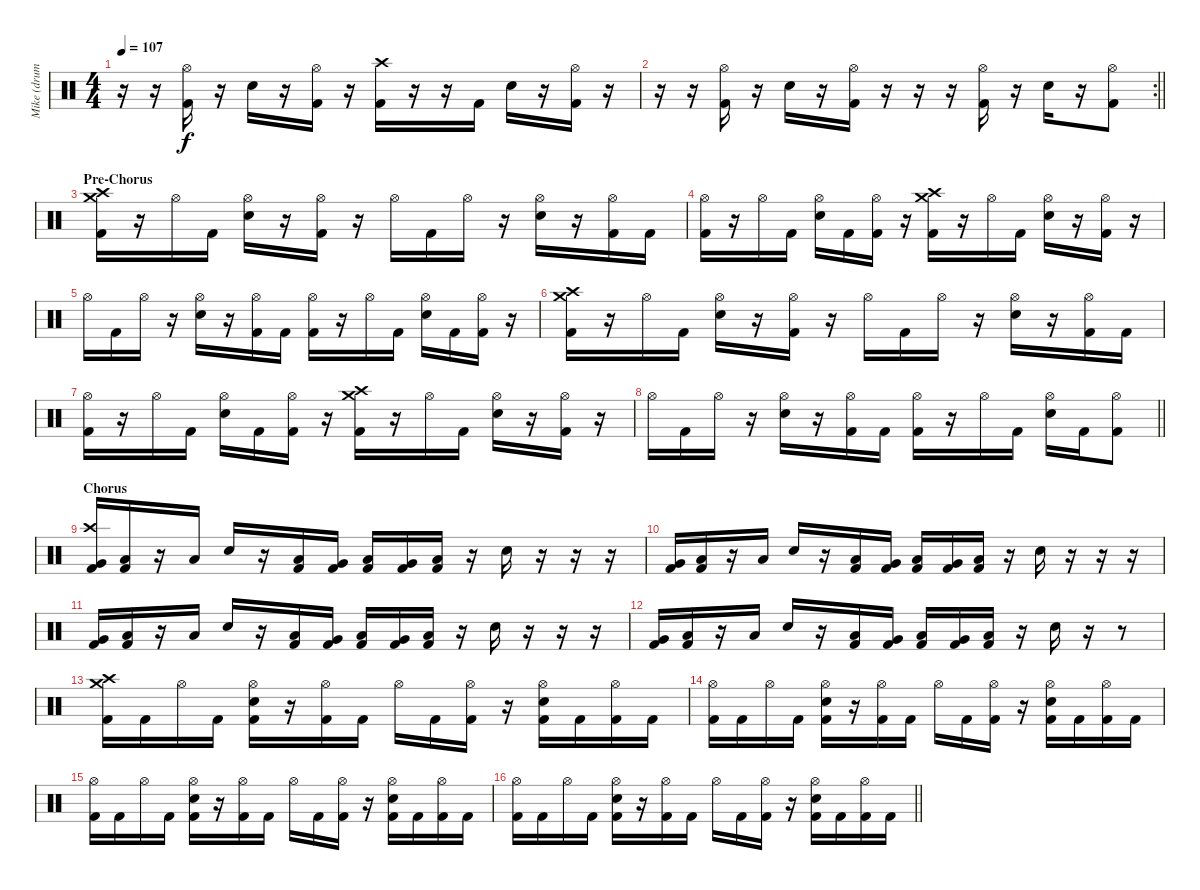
\track ("Mike (drums)" "Mike (drum") {instrument percussion}
\staff {score}
\articulation defaults
\ts (4 4)
\tempo 107
\clef neutral
\ks c
r.16{dy f} r.16 ("Hi-Hat (open)" "Kick (hit) 2").16 r.16 "Electric Snare (hit)".16 r.16 ("Hi-Hat (open)" "Kick (hit) 2").16 r.16 ("Crash high (hit)" "Kick (hit) 2").16 r.16 r.16 "Kick (hit) 2".16 "Electric Snare (hit)".16 r.16 ("Hi-Hat (open)" "Kick (hit) 2").16 r.16 |
\rc 2
\barLineRight lightlight
r.16 r.16 ("Hi-Hat (open)" "Kick (hit) 2").16 r.16 "Electric Snare (hit)".16 r.16 ("Hi-Hat (open)" "Kick (hit) 2").16 r.16 r.16 r.16 ("Hi-Hat (open)" "Kick (hit) 2").16 r.16 "Electric Snare (hit)".16 r.16 ("Hi-Hat (open)" "Kick (hit) 2").8 |
\section ("" "Pre-Chorus ")
("Crash medium (hit)" "Crash high (hit)" "Kick (hit) 2").16 r.16 "Hi-Hat (open)".16 "Kick (hit) 2".16 ("Hi-Hat (open)" "Electric Snare (hit)").16 r.16 ("Hi-Hat (open)" "Kick (hit) 2").16 r.16 "Hi-Hat (open)".16 "Kick (hit) 2".16 "Hi-Hat (open)".16 r.16 ("Hi-Hat (open)" "Electric Snare (hit)").16 r.16 ("Hi-Hat (open)" "Kick (hit) 2").16 "Kick (hit) 2".16 |
("Hi-Hat (open)" "Kick (hit) 2").16 r.16 "Hi-Hat (open)".16 "Kick (hit) 2".16 ("Hi-Hat (open)" "Electric Snare (hit)").16 "Kick (hit) 2".16 ("Hi-Hat (open)" "Kick (hit) 2").16 r.16 ("Crash high (hit)" "Crash medium (hit)" "Kick (hit) 2").16 r.16 "Hi-Hat (open)".16 "Kick (hit) 2".16 ("Hi-Hat (open)" "Electric Snare (hit)").16 r.16 ("Hi-Hat (open)" "Kick (hit) 2").16 r.16 |
"Hi-Hat (open)".16 "Kick (hit) 2".16 "Hi-Hat (open)".16 r.16 ("Hi-Hat (open)" "Electric Snare (hit)").16 r.16 ("Hi-Hat (open)" "Kick (hit) 2").16 "Kick (hit) 2".16 ("Hi-Hat (open)" "Kick (hit) 2").16 r.16 "Hi-Hat (open)".16 "Kick (hit) 2".16 ("Hi-Hat (open)" "Electric Snare (hit)").16 "Kick (hit) 2".16 ("Hi-Hat (open)" "Kick (hit) 2").16 r.16 |
("Crash high (hit)" "Crash medium (hit)" "Kick (hit) 2").16 r.16 "Hi-Hat (open)".16 "Kick (hit) 2".16 ("Hi-Hat (open)" "Electric Snare (hit)").16 r.16 ("Hi-Hat (open)" "Kick (hit) 2").16 r.16 "Hi-Hat (open)".16 "Kick (hit) 2".16 "Hi-Hat (open)".16 r.16 ("Hi-Hat (open)" "Electric Snare (hit)").16 r.16 ("Hi-Hat (open)" "Kick (hit) 2").16 "Kick (hit) 2".16 |
("Hi-Hat (open)" "Kick (hit) 2").16 r.16 "Hi-Hat (open)".16 "Kick (hit) 2".16 ("Hi-Hat (open)" "Electric Snare (hit)").16 "Kick (hit) 2".16 ("Hi-Hat (open)" "Kick (hit) 2").16 r.16 ("Crash medium (hit)" "Crash high (hit)" "Kick (hit) 2").16 r.16 "Hi-Hat (open)".16 "Kick (hit) 2".16 ("Hi-Hat (open)" "Electric Snare (hit)").16 r.16 ("Hi-Hat (open)" "Kick (hit) 2").16 r.16 |
\barLineRight lightlight "Hi-Hat (open)".16 "Kick (hit) 2".16 "Hi-Hat (open)".16
r.16 ("Hi-Hat (open)" "Electric Snare (hit)").16 r.16 ("Hi-Hat (open)" "Kick (hit) 2").16 "Kick (hit) 2".16 ("Hi-Hat (open)" "Kick (hit) 2").16 r.16 "Hi-Hat (open)".16 "Kick (hit) 2".16 ("Hi-Hat (open)" "Electric Snare (hit)").16 "Kick (hit) 2".16 ("Hi-Hat (open)" "Kick (hit) 2").8 |
\section ("" "Chorus ")
("Crash high (hit)" "Very Low Tom (hit)" "Kick (hit) 2").16 ("Low Floor Tom (hit)" "Kick (hit) 2").16 r.16 "Low Floor Tom (hit)".16 "Electric Snare (hit)".16 r.16 ("Low Floor Tom (hit)" "Kick (hit) 2").16 ("Very Low Tom (hit)" "Kick (hit) 2").16 ("Low Floor Tom (hit)" "Kick (hit) 2").16 ("Very Low Tom (hit)" "Kick (hit) 2").16 ("Low Floor Tom (hit)" "Kick (hit) 2").16 r.16 "Electric Snare (hit)".16 r.16 r.16 r.16 |
("Very Low Tom (hit)" "Kick (hit) 2").16 ("Low Floor Tom (hit)" "Kick (hit) 2").16 r.16 "Low Floor Tom (hit)".16 "Electric Snare (hit)".16 r.16 ("Low Floor Tom (hit)" "Kick (hit) 2").16 ("Very Low Tom (hit)" "Kick (hit) 2").16 ("Low Floor Tom (hit)" "Kick (hit) 2").16 ("Very Low Tom (hit)" "Kick (hit) 2").16 ("Low Floor Tom (hit)" "Kick (hit) 2").16 r.16 "Electric Snare (hit)".16 r.16 r.16 r.16 |
("Very Low Tom (hit)" "Kick (hit) 2").16 ("Low Floor Tom (hit)" "Kick (hit) 2").16 r.16 "Low Floor Tom (hit)".16 "Electric Snare (hit)".16 r.16 ("Low Floor Tom (hit)" "Kick (hit) 2").16 ("Very Low Tom (hit)" "Kick (hit) 2").16 ("Low Floor Tom (hit)" "Kick (hit) 2").16 ("Very Low Tom (hit)" "Kick (hit) 2").16 ("Low Floor Tom (hit)" "Kick (hit) 2").16 r.16 "Electric Snare (hit)".16 r.16 r.16 r.16 |
("Very Low Tom (hit)" "Kick (hit) 2").16 ("Low Floor Tom (hit)" "Kick (hit) 2").16 r.16 "Low Floor Tom (hit)".16 "Electric Snare (hit)".16 r.16 ("Low Floor Tom (hit)" "Kick (hit) 2").16 ("Very Low Tom (hit)" "Kick (hit) 2").16 ("Low Floor Tom (hit)" "Kick (hit) 2").16 ("Very Low Tom (hit)" "Kick (hit) 2").16 ("Low Floor Tom (hit)" "Kick (hit) 2").16 r.16 "Electric Snare (hit)".16 r.16 r.8 |
("Crash high (hit)" "Crash medium (hit)" "Kick (hit) 2").16 "Kick (hit) 2".16 "Hi-Hat (open)".16 "Kick (hit) 2".16 ("Hi-Hat (open)" "Electric Snare (hit)" "Kick (hit) 2").16 r.16 ("Hi-Hat (open)" "Kick (hit) 2").16 "Kick (hit) 2".16 "Hi-Hat (open)".16 "Kick (hit) 2".16 ("Hi-Hat (open)" "Kick (hit) 2").16 r.16 ("Hi-Hat (open)" "Electric Snare (hit)" "Kick (hit) 2").16 "Kick (hit) 2".16 ("Hi-Hat (open)" "Kick (hit) 2").16 "Kick (hit) 2".16 |
("Hi-Hat (open)" "Kick (hit) 2").16 "Kick (hit) 2".16 "Hi-Hat (open)".16 "Kick (hit) 2".16 ("Hi-Hat (open)" "Electric Snare (hit)" "Kick (hit) 2").16 r.16 ("Hi-Hat (open)" "Kick (hit) 2").16 "Kick (hit) 2".16 "Hi-Hat (open)".16 "Kick (hit) 2".16 ("Hi-Hat (open)" "Kick (hit) 2").16 r.16 ("Hi-Hat (open)" "Electric Snare (hit)" "Kick (hit) 2").16 "Kick (hit) 2".16 ("Hi-Hat (open)" "Kick (hit) 2").16 "Kick (hit) 2".16 |
("Hi-Hat (open)" "Kick (hit) 2").16 "Kick (hit) 2".16 "Hi-Hat (open)".16 "Kick (hit) 2".16 ("Hi-Hat (open)" "Electric Snare (hit)" "Kick (hit) 2").16 r.16 ("Hi-Hat (open)" "Kick (hit) 2").16 "Kick (hit) 2".16 "Hi-Hat (open)".16 "Kick (hit) 2".16 ("Hi-Hat (open)" "Kick (hit) 2").16 r.16 ("Hi-Hat (open)" "Electric Snare (hit)" "Kick (hit) 2").16 "Kick (hit) 2".16 ("Hi-Hat (open)" "Kick (hit) 2").16 "Kick (hit) 2".16 |
\barLineRight lightlight
("Hi-Hat (open)" "Kick (hit) 2").16 "Kick (hit) 2".16 "Hi-Hat (open)".16 "Kick (hit) 2".16 ("Hi-Hat (open)" "Electric Snare (hit)" "Kick (hit) 2").16 r.16 ("Hi-Hat (open)" "Kick (hit) 2").16 "Kick (hit) 2".16 "Hi-Hat (open)".16 "Kick (hit) 2".16 ("Hi-Hat (open)" "Kick (hit) 2").16 r.16 ("Hi-Hat (open)" "Electric Snare (hit)" "Kick (hit) 2").16 "Kick (hit) 2".16 ("Hi-Hat (open)" "Kick (hit) 2").16 "Kick (hit) 2".16
